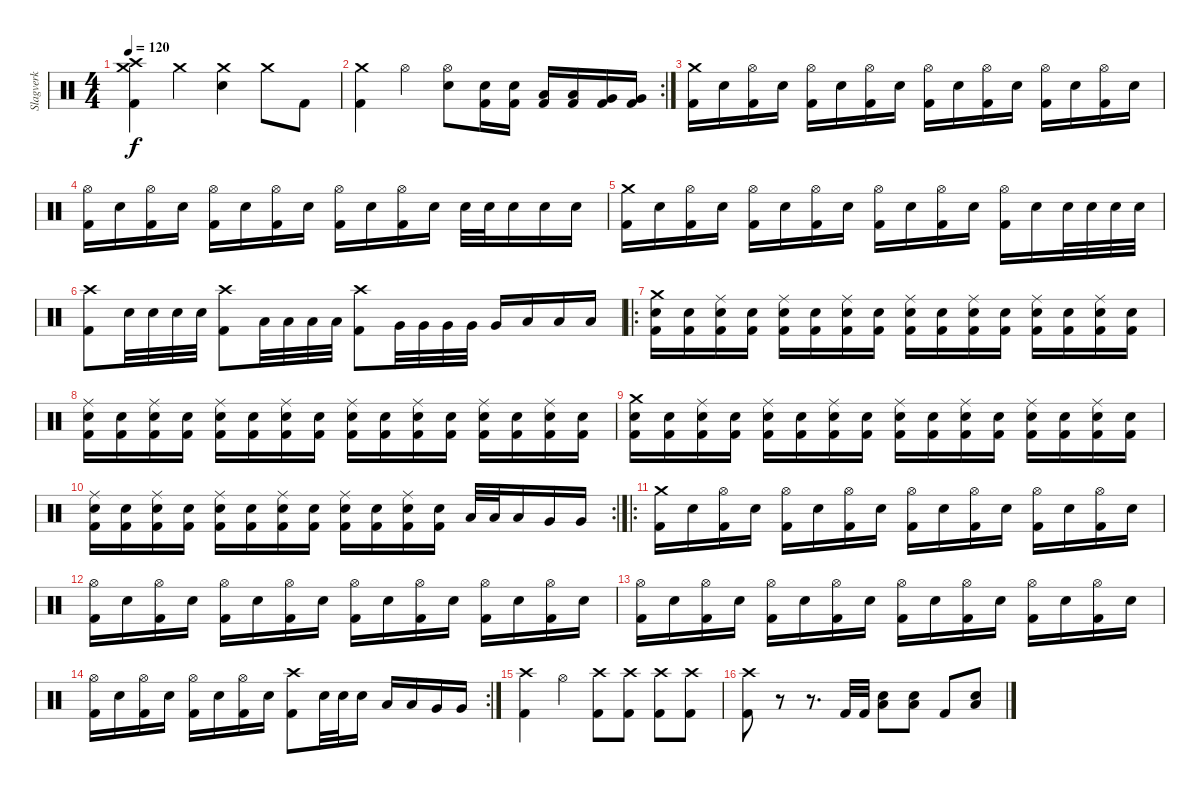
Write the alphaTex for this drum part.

\track ("Slagverk" "Slagverk") {instrument percussion}
\staff {score}
\articulation defaults
\ts (4 4)
\tempo 120
\clef neutral
\ks c
("Crash medium (hit)" "Crash high (hit)" "Kick (hit) 2").4{dy f} "Crash medium (hit)".4 ("Crash medium (hit)" "Electric Snare (hit)").4 "Crash medium (hit)".8 "Kick (hit) 2".8 |
\rc 2
("Crash medium (hit)" "Kick (hit) 2").4 "Hi-Hat (open)".4 ("Hi-Hat (open)" "Electric Snare (hit)").8 ("Electric Snare (hit)" "Kick (hit) 2").16 ("Electric Snare (hit)" "Kick (hit) 2").16 ("Low Tom (hit)" "Kick (hit) 2").16 ("Low Tom (hit)" "Kick (hit) 2").16 ("Very Low Tom (hit)" "Kick (hit) 2").16 ("Very Low Tom (hit)" "Kick (hit) 2").16 |
("Crash medium (hit)" "Kick (hit) 2").16 "Electric Snare (hit)".16 ("Hi-Hat (open)" "Kick (hit) 2").16 "Electric Snare (hit)".16 ("Hi-Hat (open)" "Kick (hit) 2").16 "Electric Snare (hit)".16 ("Hi-Hat (open)" "Kick (hit) 2").16 "Electric Snare (hit)".16 ("Hi-Hat (open)" "Kick (hit) 2").16 "Electric Snare (hit)".16 ("Hi-Hat (open)" "Kick (hit) 2").16 "Electric Snare (hit)".16 ("Hi-Hat (open)" "Kick (hit) 2").16 "Electric Snare (hit)".16 ("Hi-Hat (open)" "Kick (hit) 2").16 "Electric Snare (hit)".16 |
("Hi-Hat (open)" "Kick (hit) 2").16 "Electric Snare (hit)".16 ("Hi-Hat (open)" "Kick (hit) 2").16 "Electric Snare (hit)".16 ("Hi-Hat (open)" "Kick (hit) 2").16 "Electric Snare (hit)".16 ("Hi-Hat (open)" "Kick (hit) 2").16 "Electric Snare (hit)".16 ("Hi-Hat (open)" "Kick (hit) 2").16 "Electric Snare (hit)".16 ("Hi-Hat (open)" "Kick (hit) 2").16 "Electric Snare (hit)".16 "Electric Snare (hit)".32 "Electric Snare (hit)".32 "Electric Snare (hit)".16 "Electric Snare (hit)".16 "Electric Snare (hit)".16 |
("Crash medium (hit)" "Kick (hit) 2").16 "Electric Snare (hit)".16 ("Hi-Hat (open)" "Kick (hit) 2").16 "Electric Snare (hit)".16 ("Hi-Hat (open)" "Kick (hit) 2").16 "Electric Snare (hit)".16 ("Hi-Hat (open)" "Kick (hit) 2").16 "Electric Snare (hit)".16 ("Hi-Hat (open)" "Kick (hit) 2").16 "Electric Snare (hit)".16 ("Hi-Hat (open)" "Kick (hit) 2").16 "Electric Snare (hit)".16 ("Hi-Hat (open)" "Kick (hit) 2").16 "Electric Snare (hit)".16 "Electric Snare (hit)".32 "Electric Snare (hit)".32 "Electric Snare (hit)".32 "Electric Snare (hit)".32 |
("Crash high (hit)" "Kick (hit) 2").8 "Electric Snare (hit)".32 "Electric Snare (hit)".32 "Electric Snare (hit)".32 "Electric Snare (hit)".32 ("Crash high (hit)" "Kick (hit) 2").8 "Low Tom (hit)".32 "Low Tom (hit)".32 "Low Tom (hit)".32 "Low Tom (hit)".32 ("Crash high (hit)" "Kick (hit) 2").8 "Very Low Tom (hit)".32 "Very Low Tom (hit)".32 "Very Low Tom (hit)".32 "Very Low Tom (hit)".32 "Very Low Tom (hit)".16 "Low Floor Tom (hit)".16 "Low Floor Tom (hit)".16 "Low Floor Tom (hit)".16 |
\ro
("Crash medium (hit)" "Electric Snare (hit)" "Kick (hit) 2").16 ("Electric Snare (hit)" "Kick (hit) 2").16 ("Ride (middle)" "Electric Snare (hit)" "Kick (hit) 2").16 ("Electric Snare (hit)" "Kick (hit) 2").16 ("Ride (middle)" "Electric Snare (hit)" "Kick (hit) 2").16 ("Electric Snare (hit)" "Kick (hit) 2").16 ("Ride (middle)" "Electric Snare (hit)" "Kick (hit) 2").16 ("Electric Snare (hit)" "Kick (hit) 2").16 ("Ride (middle)" "Electric Snare (hit)" "Kick (hit) 2").16 ("Electric Snare (hit)" "Kick (hit) 2").16 ("Ride (middle)" "Electric Snare (hit)" "Kick (hit) 2").16 ("Electric Snare (hit)" "Kick (hit) 2").16 ("Ride (middle)" "Electric Snare (hit)" "Kick (hit) 2").16 ("Electric Snare (hit)" "Kick (hit) 2").16 ("Ride (middle)" "Electric Snare (hit)" "Kick (hit) 2").16 ("Electric Snare (hit)" "Kick (hit) 2").16 |
("Ride (middle)" "Electric Snare (hit)" "Kick (hit) 2").16 ("Electric Snare (hit)" "Kick (hit) 2").16 ("Ride (middle)" "Electric Snare (hit)" "Kick (hit) 2").16 ("Electric Snare (hit)" "Kick (hit) 2").16 ("Ride (middle)" "Electric Snare (hit)" "Kick (hit) 2").16 ("Electric Snare (hit)" "Kick (hit) 2").16 ("Ride (middle)" "Electric Snare (hit)" "Kick (hit) 2").16 ("Electric Snare (hit)" "Kick (hit) 2").16 ("Ride (middle)" "Electric Snare (hit)" "Kick (hit) 2").16 ("Electric Snare (hit)" "Kick (hit) 2").16 ("Ride (middle)" "Electric Snare (hit)" "Kick (hit) 2").16 ("Electric Snare (hit)" "Kick (hit) 2").16 ("Ride (middle)" "Electric Snare (hit)" "Kick (hit) 2").16 ("Electric Snare (hit)" "Kick (hit) 2").16 ("Ride (middle)" "Electric Snare (hit)" "Kick (hit) 2").16 ("Electric Snare (hit)" "Kick (hit) 2").16 |
("Crash medium (hit)" "Electric Snare (hit)" "Kick (hit) 2").16 ("Electric Snare (hit)" "Kick (hit) 2").16 ("Ride (middle)" "Electric Snare (hit)" "Kick (hit) 2").16 ("Electric Snare (hit)" "Kick (hit) 2").16 ("Ride (middle)" "Electric Snare (hit)" "Kick (hit) 2").16 ("Electric Snare (hit)" "Kick (hit) 2").16 ("Ride (middle)" "Electric Snare (hit)" "Kick (hit) 2").16 ("Electric Snare (hit)" "Kick (hit) 2").16 ("Ride (middle)" "Electric Snare (hit)" "Kick (hit) 2").16 ("Electric Snare (hit)" "Kick (hit) 2").16 ("Ride (middle)" "Electric Snare (hit)" "Kick (hit) 2").16 ("Electric Snare (hit)" "Kick (hit) 2").16 ("Ride (middle)" "Electric Snare (hit)" "Kick (hit) 2").16 ("Electric Snare (hit)" "Kick (hit) 2").16 ("Ride (middle)" "Electric Snare (hit)" "Kick (hit) 2").16 ("Electric Snare (hit)" "Kick (hit) 2").16 |
\rc 2
("Ride (middle)" "Electric Snare (hit)" "Kick (hit) 2").16 ("Electric Snare (hit)" "Kick (hit) 2").16 ("Ride (middle)" "Electric Snare (hit)" "Kick (hit) 2").16 ("Electric Snare (hit)" "Kick (hit) 2").16 ("Ride (middle)" "Electric Snare (hit)" "Kick (hit) 2").16 ("Electric Snare (hit)" "Kick (hit) 2").16 ("Ride (middle)" "Electric Snare (hit)" "Kick (hit) 2").16 ("Electric Snare (hit)" "Kick (hit) 2").16 ("Ride (middle)" "Electric Snare (hit)" "Kick (hit) 2").16 ("Electric Snare (hit)" "Kick (hit) 2").16 ("Ride (middle)" "Electric Snare (hit)" "Kick (hit) 2").16 ("Electric Snare (hit)" "Kick (hit) 2").16 "Low Tom (hit)".32 "Low Tom (hit)".32 "Low Tom (hit)".16 "Very Low Tom (hit)".16 "Very Low Tom (hit)".16 |
\ro
("Crash medium (hit)" "Kick (hit) 2").16 "Electric Snare (hit)".16 ("Hi-Hat (open)" "Kick (hit) 2").16 "Electric Snare (hit)".16 ("Hi-Hat (open)" "Kick (hit) 2").16 "Electric Snare (hit)".16 ("Hi-Hat (open)" "Kick (hit) 2").16 "Electric Snare (hit)".16 ("Hi-Hat (open)" "Kick (hit) 2").16 "Electric Snare (hit)".16 ("Hi-Hat (open)" "Kick (hit) 2").16 "Electric Snare (hit)".16 ("Hi-Hat (open)" "Kick (hit) 2").16 "Electric Snare (hit)".16 ("Hi-Hat (open)" "Kick (hit) 2").16 "Electric Snare (hit)".16 |
("Hi-Hat (open)" "Kick (hit) 2").16 "Electric Snare (hit)".16 ("Hi-Hat (open)" "Kick (hit) 2").16 "Electric Snare (hit)".16 ("Hi-Hat (open)" "Kick (hit) 2").16 "Electric Snare (hit)".16 ("Hi-Hat (open)" "Kick (hit) 2").16 "Electric Snare (hit)".16 ("Hi-Hat (open)" "Kick (hit) 2").16 "Electric Snare (hit)".16 ("Hi-Hat (open)" "Kick (hit) 2").16 "Electric Snare (hit)".16 ("Hi-Hat (open)" "Kick (hit) 2").16 "Electric Snare (hit)".16 ("Hi-Hat (open)" "Kick (hit) 2").16 "Electric Snare (hit)".16 |
("Hi-Hat (open)" "Kick (hit) 2").16 "Electric Snare (hit)".16 ("Hi-Hat (open)" "Kick (hit) 2").16 "Electric Snare (hit)".16 ("Hi-Hat (open)" "Kick (hit) 2").16 "Electric Snare (hit)".16 ("Hi-Hat (open)" "Kick (hit) 2").16 "Electric Snare (hit)".16 ("Hi-Hat (open)" "Kick (hit) 2").16 "Electric Snare (hit)".16 ("Hi-Hat (open)" "Kick (hit) 2").16 "Electric Snare (hit)".16 ("Hi-Hat (open)" "Kick (hit) 2").16 "Electric Snare (hit)".16 ("Hi-Hat (open)" "Kick (hit) 2").16 "Electric Snare (hit)".16 |
\rc 2
("Hi-Hat (open)" "Kick (hit) 2").16 "Electric Snare (hit)".16 ("Hi-Hat (open)" "Kick (hit) 2").16 "Electric Snare (hit)".16 ("Hi-Hat (open)" "Kick (hit) 2").16 "Electric Snare (hit)".16 ("Hi-Hat (open)" "Kick (hit) 2").16 "Electric Snare (hit)".16 ("Crash high (hit)" "Kick (hit) 2").8 "Electric Snare (hit)".32 "Electric Snare (hit)".32 "Electric Snare (hit)".16 "Low Tom (hit)".16 "Low Tom (hit)".16 "Very Low Tom (hit)".16 "Very Low Tom (hit)".16 |
("Crash high (hit)" "Kick (hit) 2").4 "Hi-Hat (open)".4 ("Crash high (hit)" "Kick (hit) 2").8 ("Crash high (hit)" "Kick (hit) 2").8 ("Crash high (hit)" "Kick (hit) 2").8 ("Crash high (hit)" "Kick (hit) 2").8 |
("Crash high (hit)" "Kick (hit) 2").8 r.8{volume 0} r.8{d} "Kick (hit) 2".32{volume 13} "Kick (hit) 2".32 ("Electric Snare (hit)" "Low Floor Tom (hit)").8 ("Electric Snare (hit)" "Low Floor Tom (hit)").8 "Kick (hit) 2".8 ("Electric Snare (hit)" "Low Floor Tom (hit)").8
